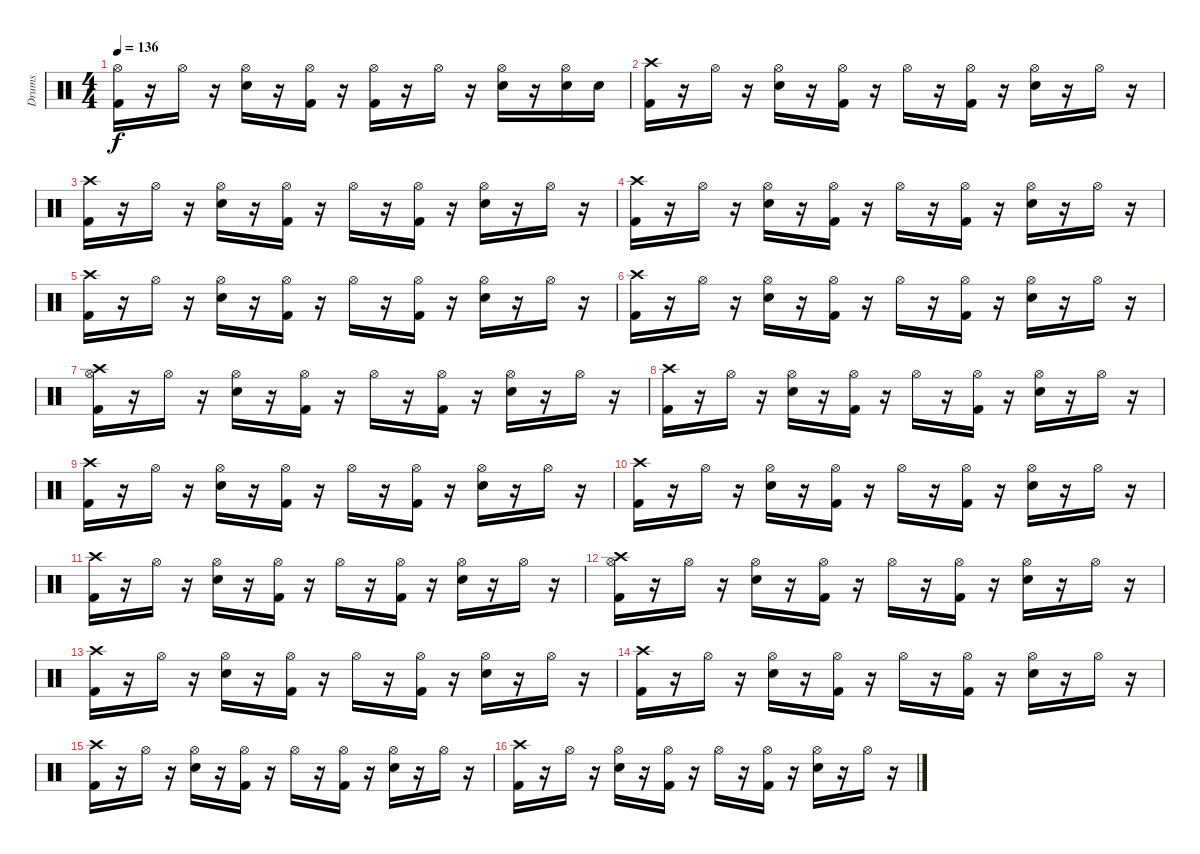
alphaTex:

\track ("Drums" "Drums") {instrument percussion}
\staff {score}
\articulation defaults
\ts (4 4)
\tempo 136
\clef neutral
\ks c
("Kick (hit) 2" "Hi-Hat (open)").16{dy f} r.16 "Hi-Hat (open)".16 r.16 ("Electric Snare (hit)" "Hi-Hat (open)").16 r.16 ("Kick (hit) 2" "Hi-Hat (open)").16 r.16 ("Kick (hit) 2" "Hi-Hat (open)").16 r.16 "Hi-Hat (open)".16 r.16 ("Electric Snare (hit)" "Hi-Hat (open)").16 r.16 ("Electric Snare (hit)" "Hi-Hat (open)").16 "Electric Snare (hit)".16 |
("Kick (hit) 2" "Crash high (hit)").16 r.16 "Hi-Hat (open)".16 r.16 ("Electric Snare (hit)" "Hi-Hat (open)").16 r.16 ("Kick (hit) 2" "Hi-Hat (open)").16 r.16 "Hi-Hat (open)".16 r.16 ("Kick (hit) 2" "Hi-Hat (open)").16 r.16 ("Electric Snare (hit)" "Hi-Hat (open)").16 r.16 "Hi-Hat (open)".16 r.16 |
("Kick (hit) 2" "Crash high (hit)").16 r.16 "Hi-Hat (open)".16 r.16 ("Electric Snare (hit)" "Hi-Hat (open)").16 r.16 ("Kick (hit) 2" "Hi-Hat (open)").16 r.16 "Hi-Hat (open)".16 r.16 ("Kick (hit) 2" "Hi-Hat (open)").16 r.16 ("Electric Snare (hit)" "Hi-Hat (open)").16 r.16 "Hi-Hat (open)".16 r.16 |
("Kick (hit) 2" "Crash high (hit)").16 r.16 "Hi-Hat (open)".16 r.16 ("Electric Snare (hit)" "Hi-Hat (open)").16 r.16 ("Kick (hit) 2" "Hi-Hat (open)").16 r.16 "Hi-Hat (open)".16 r.16 ("Kick (hit) 2" "Hi-Hat (open)").16 r.16 ("Electric Snare (hit)" "Hi-Hat (open)").16 r.16 "Hi-Hat (open)".16 r.16 |
("Kick (hit) 2" "Crash high (hit)").16 r.16 "Hi-Hat (open)".16 r.16 ("Electric Snare (hit)" "Hi-Hat (open)").16 r.16 ("Kick (hit) 2" "Hi-Hat (open)").16 r.16 "Hi-Hat (open)".16 r.16 ("Kick (hit) 2" "Hi-Hat (open)").16 r.16 ("Electric Snare (hit)" "Hi-Hat (open)").16 r.16 "Hi-Hat (open)".16 r.16 |
("Kick (hit) 2" "Crash high (hit)").16 r.16 "Hi-Hat (open)".16 r.16 ("Electric Snare (hit)" "Hi-Hat (open)").16 r.16 ("Kick (hit) 2" "Hi-Hat (open)").16 r.16 "Hi-Hat (open)".16 r.16 ("Kick (hit) 2" "Hi-Hat (open)").16 r.16 ("Electric Snare (hit)" "Hi-Hat (open)").16 r.16 "Hi-Hat (open)".16 r.16 |
("Kick (hit) 2" "Hi-Hat (open)" "Crash high (hit)").16 r.16 "Hi-Hat (open)".16 r.16 ("Electric Snare (hit)" "Hi-Hat (open)").16 r.16 ("Kick (hit) 2" "Hi-Hat (open)").16 r.16 "Hi-Hat (open)".16 r.16 ("Kick (hit) 2" "Hi-Hat (open)").16 r.16 ("Electric Snare (hit)" "Hi-Hat (open)").16 r.16 "Hi-Hat (open)".16 r.16 |
("Kick (hit) 2" "Crash high (hit)").16 r.16 "Hi-Hat (open)".16 r.16 ("Electric Snare (hit)" "Hi-Hat (open)").16 r.16 ("Kick (hit) 2" "Hi-Hat (open)").16 r.16 "Hi-Hat (open)".16 r.16 ("Kick (hit) 2" "Hi-Hat (open)").16 r.16 ("Electric Snare (hit)" "Hi-Hat (open)").16 r.16 "Hi-Hat (open)".16 r.16 |
("Kick (hit) 2" "Crash high (hit)").16 r.16 "Hi-Hat (open)".16 r.16 ("Electric Snare (hit)" "Hi-Hat (open)").16 r.16 ("Kick (hit) 2" "Hi-Hat (open)").16 r.16 "Hi-Hat (open)".16 r.16 ("Kick (hit) 2" "Hi-Hat (open)").16 r.16 ("Electric Snare (hit)" "Hi-Hat (open)").16 r.16 "Hi-Hat (open)".16 r.16 |
("Kick (hit) 2" "Crash high (hit)").16 r.16 "Hi-Hat (open)".16 r.16 ("Electric Snare (hit)" "Hi-Hat (open)").16 r.16 ("Kick (hit) 2" "Hi-Hat (open)").16 r.16 "Hi-Hat (open)".16 r.16 ("Kick (hit) 2" "Hi-Hat (open)").16 r.16 ("Electric Snare (hit)" "Hi-Hat (open)").16 r.16 "Hi-Hat (open)".16 r.16 |
("Kick (hit) 2" "Crash high (hit)").16 r.16 "Hi-Hat (open)".16 r.16 ("Electric Snare (hit)" "Hi-Hat (open)").16 r.16 ("Kick (hit) 2" "Hi-Hat (open)").16 r.16 "Hi-Hat (open)".16 r.16 ("Kick (hit) 2" "Hi-Hat (open)").16 r.16 ("Electric Snare (hit)" "Hi-Hat (open)").16 r.16 "Hi-Hat (open)".16 r.16 |
("Kick (hit) 2" "Hi-Hat (open)" "Crash high (hit)").16 r.16 "Hi-Hat (open)".16 r.16 ("Electric Snare (hit)" "Hi-Hat (open)").16 r.16 ("Kick (hit) 2" "Hi-Hat (open)").16 r.16 "Hi-Hat (open)".16 r.16 ("Kick (hit) 2" "Hi-Hat (open)").16 r.16 ("Electric Snare (hit)" "Hi-Hat (open)").16 r.16 "Hi-Hat (open)".16 r.16 |
("Kick (hit) 2" "Crash high (hit)").16 r.16 "Hi-Hat (open)".16 r.16 ("Electric Snare (hit)" "Hi-Hat (open)").16 r.16 ("Kick (hit) 2" "Hi-Hat (open)").16 r.16 "Hi-Hat (open)".16 r.16 ("Kick (hit) 2" "Hi-Hat (open)").16 r.16 ("Electric Snare (hit)" "Hi-Hat (open)").16 r.16 "Hi-Hat (open)".16 r.16 |
("Kick (hit) 2" "Crash high (hit)").16 r.16 "Hi-Hat (open)".16 r.16 ("Electric Snare (hit)" "Hi-Hat (open)").16 r.16 ("Kick (hit) 2" "Hi-Hat (open)").16 r.16 "Hi-Hat (open)".16 r.16 ("Kick (hit) 2" "Hi-Hat (open)").16 r.16 ("Electric Snare (hit)" "Hi-Hat (open)").16 r.16 "Hi-Hat (open)".16 r.16 |
("Kick (hit) 2" "Crash high (hit)").16 r.16 "Hi-Hat (open)".16 r.16 ("Electric Snare (hit)" "Hi-Hat (open)").16 r.16 ("Kick (hit) 2" "Hi-Hat (open)").16 r.16 "Hi-Hat (open)".16 r.16 ("Kick (hit) 2" "Hi-Hat (open)").16 r.16 ("Electric Snare (hit)" "Hi-Hat (open)").16 r.16 "Hi-Hat (open)".16 r.16 |
("Kick (hit) 2" "Crash high (hit)").16 r.16 "Hi-Hat (open)".16 r.16 ("Electric Snare (hit)" "Hi-Hat (open)").16 r.16 ("Kick (hit) 2" "Hi-Hat (open)").16 r.16 "Hi-Hat (open)".16 r.16 ("Kick (hit) 2" "Hi-Hat (open)").16 r.16 ("Electric Snare (hit)" "Hi-Hat (open)").16 r.16 "Hi-Hat (open)".16 r.16
